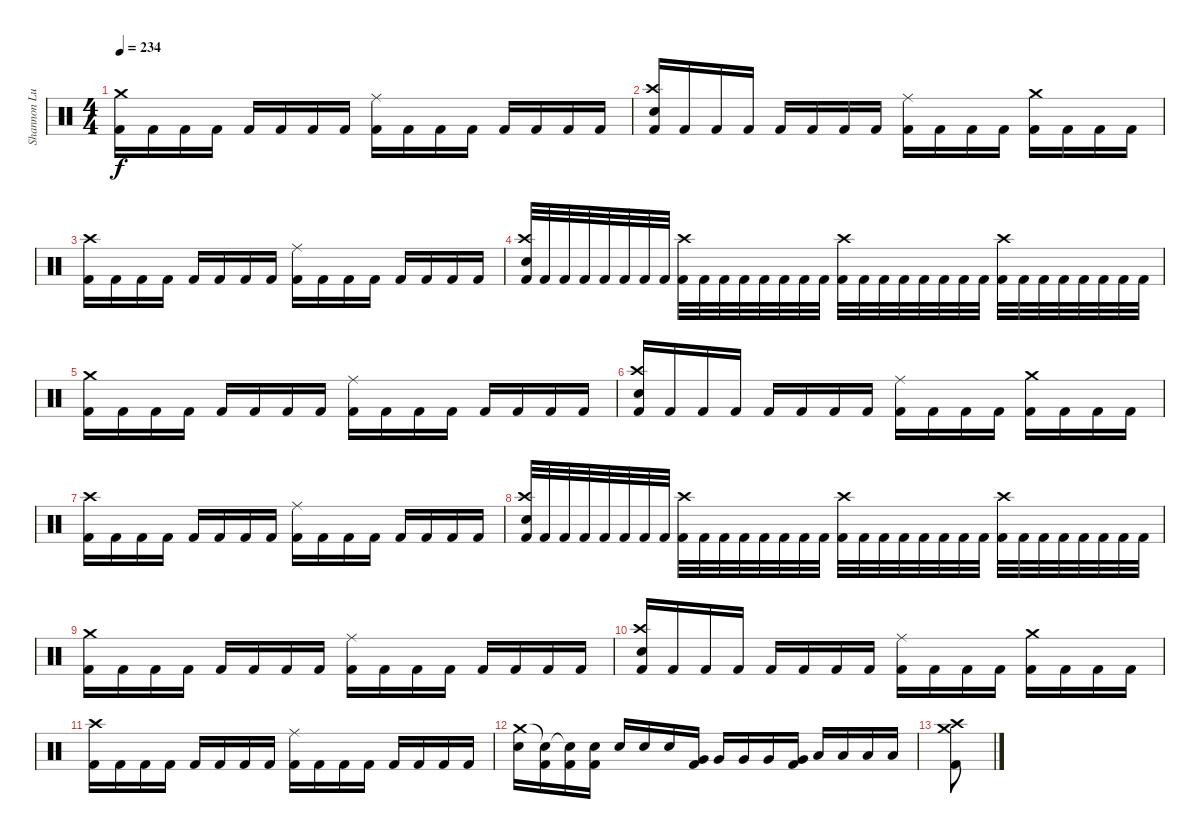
\track ("Shannon Lucas (Drums)" "Shannon Lu") {instrument percussion}
\staff {score}
\articulation defaults
\ts (4 4)
\tempo 234
\clef neutral
\ks c
("Crash medium (hit)" "Kick (hit) 2").16{dy f} "Kick (hit) 2".16 "Kick (hit) 2".16 "Kick (hit) 2".16 "Kick (hit) 2".16 "Kick (hit) 2".16 "Kick (hit) 2".16 "Kick (hit) 2".16 ("Ride (middle)" "Kick (hit) 2").16 "Kick (hit) 2".16 "Kick (hit) 2".16 "Kick (hit) 2".16 "Kick (hit) 2".16 "Kick (hit) 2".16 "Kick (hit) 2".16 "Kick (hit) 2".16 |
("Crash high (hit)" "Electric Snare (hit)" "Kick (hit) 2").16 "Kick (hit) 2".16 "Kick (hit) 2".16 "Kick (hit) 2".16 "Kick (hit) 2".16 "Kick (hit) 2".16 "Kick (hit) 2".16 "Kick (hit) 2".16 ("Ride (middle)" "Kick (hit) 2").16 "Kick (hit) 2".16 "Kick (hit) 2".16 "Kick (hit) 2".16 ("Crash medium (hit)" "Kick (hit) 2").16 "Kick (hit) 2".16 "Kick (hit) 2".16 "Kick (hit) 2".16 |
("Crash high (hit)" "Kick (hit) 2").16 "Kick (hit) 2".16 "Kick (hit) 2".16 "Kick (hit) 2".16 "Kick (hit) 2".16 "Kick (hit) 2".16 "Kick (hit) 2".16 "Kick (hit) 2".16 ("Ride (middle)" "Kick (hit) 2").16 "Kick (hit) 2".16 "Kick (hit) 2".16 "Kick (hit) 2".16 "Kick (hit) 2".16 "Kick (hit) 2".16 "Kick (hit) 2".16 "Kick (hit) 2".16 |
("Crash high (hit)" "Electric Snare (hit)" "Kick (hit) 2").32 "Kick (hit) 2".32 "Kick (hit) 2".32 "Kick (hit) 2".32 "Kick (hit) 2".32 "Kick (hit) 2".32 "Kick (hit) 2".32 "Kick (hit) 2".32 ("Crash high (hit)" "Kick (hit) 2").32 "Kick (hit) 2".32 "Kick (hit) 2".32 "Kick (hit) 2".32 "Kick (hit) 2".32 "Kick (hit) 2".32 "Kick (hit) 2".32 "Kick (hit) 2".32 ("Crash high (hit)" "Kick (hit) 2").32 "Kick (hit) 2".32 "Kick (hit) 2".32 "Kick (hit) 2".32 "Kick (hit) 2".32 "Kick (hit) 2".32 "Kick (hit) 2".32 "Kick (hit) 2".32 ("Crash high (hit)" "Kick (hit) 2").32 "Kick (hit) 2".32 "Kick (hit) 2".32 "Kick (hit) 2".32 "Kick (hit) 2".32 "Kick (hit) 2".32 "Kick (hit) 2".32 "Kick (hit) 2".32 |
("Crash medium (hit)" "Kick (hit) 2").16 "Kick (hit) 2".16 "Kick (hit) 2".16 "Kick (hit) 2".16 "Kick (hit) 2".16 "Kick (hit) 2".16 "Kick (hit) 2".16 "Kick (hit) 2".16 ("Ride (middle)" "Kick (hit) 2").16 "Kick (hit) 2".16 "Kick (hit) 2".16 "Kick (hit) 2".16 "Kick (hit) 2".16 "Kick (hit) 2".16 "Kick (hit) 2".16 "Kick (hit) 2".16 |
("Crash high (hit)" "Electric Snare (hit)" "Kick (hit) 2").16 "Kick (hit) 2".16 "Kick (hit) 2".16 "Kick (hit) 2".16 "Kick (hit) 2".16 "Kick (hit) 2".16 "Kick (hit) 2".16 "Kick (hit) 2".16 ("Ride (middle)" "Kick (hit) 2").16 "Kick (hit) 2".16 "Kick (hit) 2".16 "Kick (hit) 2".16 ("Crash medium (hit)" "Kick (hit) 2").16 "Kick (hit) 2".16 "Kick (hit) 2".16 "Kick (hit) 2".16 |
("Crash high (hit)" "Kick (hit) 2").16 "Kick (hit) 2".16 "Kick (hit) 2".16 "Kick (hit) 2".16 "Kick (hit) 2".16 "Kick (hit) 2".16 "Kick (hit) 2".16 "Kick (hit) 2".16 ("Ride (middle)" "Kick (hit) 2").16 "Kick (hit) 2".16 "Kick (hit) 2".16 "Kick (hit) 2".16 "Kick (hit) 2".16 "Kick (hit) 2".16 "Kick (hit) 2".16 "Kick (hit) 2".16 |
("Crash high (hit)" "Electric Snare (hit)" "Kick (hit) 2").32 "Kick (hit) 2".32 "Kick (hit) 2".32 "Kick (hit) 2".32 "Kick (hit) 2".32 "Kick (hit) 2".32 "Kick (hit) 2".32 "Kick (hit) 2".32 ("Crash high (hit)" "Kick (hit) 2").32 "Kick (hit) 2".32 "Kick (hit) 2".32 "Kick (hit) 2".32 "Kick (hit) 2".32 "Kick (hit) 2".32 "Kick (hit) 2".32 "Kick (hit) 2".32 ("Crash high (hit)" "Kick (hit) 2").32 "Kick (hit) 2".32 "Kick (hit) 2".32 "Kick (hit) 2".32 "Kick (hit) 2".32 "Kick (hit) 2".32 "Kick (hit) 2".32 "Kick (hit) 2".32 ("Crash high (hit)" "Kick (hit) 2").32 "Kick (hit) 2".32 "Kick (hit) 2".32 "Kick (hit) 2".32 "Kick (hit) 2".32 "Kick (hit) 2".32 "Kick (hit) 2".32 "Kick (hit) 2".32 |
("Crash medium (hit)" "Kick (hit) 2").16 "Kick (hit) 2".16 "Kick (hit) 2".16 "Kick (hit) 2".16 "Kick (hit) 2".16 "Kick (hit) 2".16 "Kick (hit) 2".16 "Kick (hit) 2".16 ("Ride (middle)" "Kick (hit) 2").16 "Kick (hit) 2".16 "Kick (hit) 2".16 "Kick (hit) 2".16 "Kick (hit) 2".16 "Kick (hit) 2".16 "Kick (hit) 2".16 "Kick (hit) 2".16 |
("Crash high (hit)" "Electric Snare (hit)" "Kick (hit) 2").16 "Kick (hit) 2".16 "Kick (hit) 2".16 "Kick (hit) 2".16 "Kick (hit) 2".16 "Kick (hit) 2".16 "Kick (hit) 2".16 "Kick (hit) 2".16 ("Ride (middle)" "Kick (hit) 2").16 "Kick (hit) 2".16 "Kick (hit) 2".16 "Kick (hit) 2".16 ("Crash medium (hit)" "Kick (hit) 2").16 "Kick (hit) 2".16 "Kick (hit) 2".16 "Kick (hit) 2".16 |
("Crash high (hit)" "Kick (hit) 2").16 "Kick (hit) 2".16 "Kick (hit) 2".16 "Kick (hit) 2".16 "Kick (hit) 2".16 "Kick (hit) 2".16 "Kick (hit) 2".16 "Kick (hit) 2".16 ("Ride (middle)" "Kick (hit) 2").16 "Kick (hit) 2".16 "Kick (hit) 2".16 "Kick (hit) 2".16 "Kick (hit) 2".16 "Kick (hit) 2".16 "Kick (hit) 2".16 "Kick (hit) 2".16 |
("Crash medium (hit)" "Electric Snare (hit)").16 ("Snare (hit)"{t} "Kick (hit) 2").16 ("Electric Snare (hit)"{t} "Kick (hit) 2").16 ("Electric Snare (hit)" "Kick (hit) 2").16 "Electric Snare (hit)".16 "Electric Snare (hit)".16 "Electric Snare (hit)".16 ("Very Low Tom (hit)" "Kick (hit) 2").16 "Very Low Tom (hit)".16 "Very Low Tom (hit)".16 "Very Low Tom (hit)".16 ("Very Low Tom (hit)" "Kick (hit) 2").16 "Low Floor Tom (hit)".16 "Low Floor Tom (hit)".16 "Low Floor Tom (hit)".16 "Low Floor Tom (hit)".16 |
("Crash high (hit)" "Crash medium (hit)" "Kick (hit) 2").8
